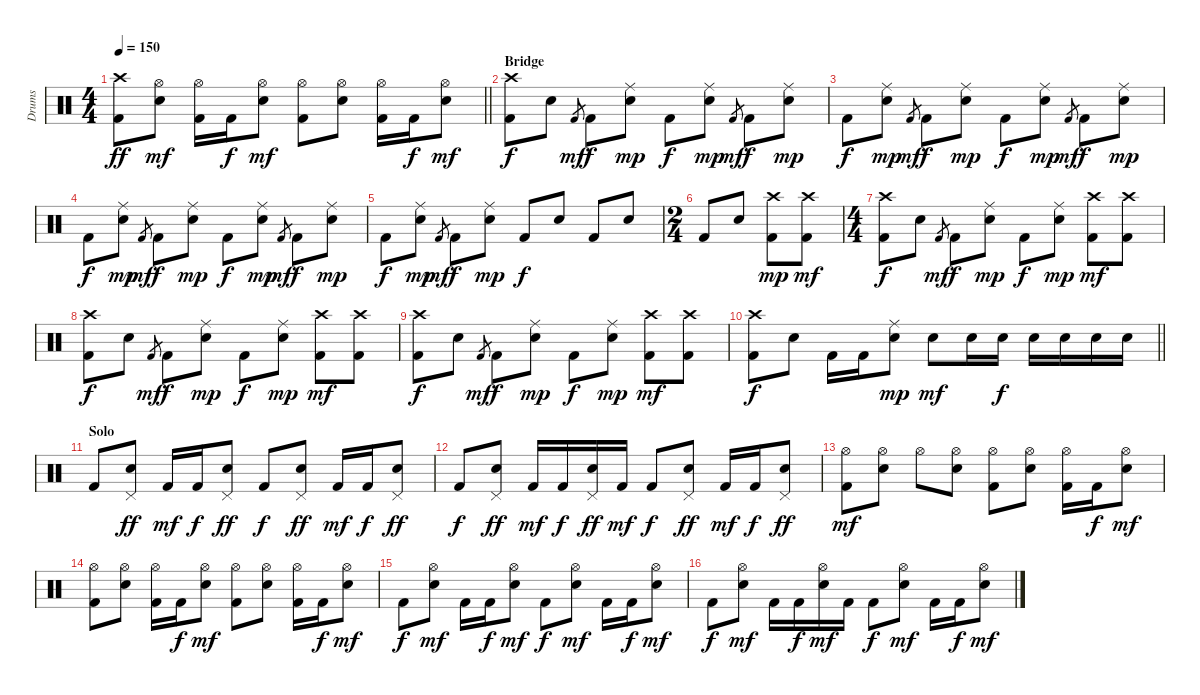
\track ("Drums" "Drums") {instrument percussion}
\staff {score}
\articulation defaults
\ts (4 4)
\tempo 150
\clef neutral
\barLineRight lightlight
\ks c
("Crash high (hit)" "Kick (hit) 2").8{dy ff} ("Hi-Hat (open)" "Electric Snare (hit)").8{dy mf} ("Hi-Hat (open)" "Kick (hit) 2").16 "Kick (hit) 2".16{dy f} ("Hi-Hat (open)" "Electric Snare (hit)").8{dy mf} ("Hi-Hat (open)" "Kick (hit) 2").8 ("Hi-Hat (open)" "Electric Snare (hit)").8 ("Hi-Hat (open)" "Kick (hit) 2").16 "Kick (hit) 2".16{dy f} ("Hi-Hat (open)" "Electric Snare (hit)").8{dy mf} |
\section ("" "Bridge")
("Crash high (hit)" "Kick (hit) 2").8{dy f} "Electric Snare (hit)".8 "Kick (hit) 2".8{gr dy mf} "Kick (hit) 2".8{dy f} ("Ride (middle)" "Electric Snare (hit)").8{dy mp} "Kick (hit) 2".8{dy f} ("Ride (middle)" "Electric Snare (hit)").8{dy mp} "Kick (hit) 2".8{gr dy mf} "Kick (hit) 2".8{dy f} ("Ride (middle)" "Electric Snare (hit)").8{dy mp} |
"Kick (hit) 2".8{dy f} ("Ride (middle)" "Electric Snare (hit)").8{dy mp} "Kick (hit) 2".8{gr dy mf} "Kick (hit) 2".8{dy f} ("Ride (middle)" "Electric Snare (hit)").8{dy mp} "Kick (hit) 2".8{dy f} ("Ride (middle)" "Electric Snare (hit)").8{dy mp} "Kick (hit) 2".8{gr dy mf} "Kick (hit) 2".8{dy f} ("Ride (middle)" "Electric Snare (hit)").8{dy mp} |
"Kick (hit) 2".8{dy f} ("Ride (middle)" "Electric Snare (hit)").8{dy mp} "Kick (hit) 2".8{gr dy mf} "Kick (hit) 2".8{dy f} ("Ride (middle)" "Electric Snare (hit)").8{dy mp} "Kick (hit) 2".8{dy f} ("Ride (middle)" "Electric Snare (hit)").8{dy mp} "Kick (hit) 2".8{gr dy mf} "Kick (hit) 2".8{dy f} ("Ride (middle)" "Electric Snare (hit)").8{dy mp} |
"Kick (hit) 2".8{dy f} ("Ride (middle)" "Electric Snare (hit)").8{dy mp} "Kick (hit) 2".8{gr dy mf} "Kick (hit) 2".8{dy f} ("Ride (middle)" "Electric Snare (hit)").8{dy mp} "Kick (hit) 2".8{dy f} "Electric Snare (hit)".8 "Kick (hit) 2".8 "Electric Snare (hit)".8 |
\ts (2 4)
"Kick (hit) 2".8 "Electric Snare (hit)".8 ("Crash high (hit)" "Kick (hit) 2").8{dy mp} ("Crash high (hit)" "Kick (hit) 2").8{dy mf} |
\ts (4 4)
("Crash high (hit)" "Kick (hit) 2").8{dy f} "Electric Snare (hit)".8 "Kick (hit) 2".8{gr dy mf} "Kick (hit) 2".8{dy f} ("Ride (middle)" "Electric Snare (hit)").8{dy mp} "Kick (hit) 2".8{dy f} ("Ride (middle)" "Electric Snare (hit)").8{dy mp} ("Crash high (hit)" "Kick (hit) 2").8{dy mf} ("Crash high (hit)" "Kick (hit) 2").8 |
("Crash high (hit)" "Kick (hit) 2").8{dy f} "Electric Snare (hit)".8 "Kick (hit) 2".8{gr dy mf} "Kick (hit) 2".8{dy f} ("Ride (middle)" "Electric Snare (hit)").8{dy mp} "Kick (hit) 2".8{dy f} ("Ride (middle)" "Electric Snare (hit)").8{dy mp} ("Crash high (hit)" "Kick (hit) 2").8{dy mf} ("Crash high (hit)" "Kick (hit) 2").8 |
("Crash high (hit)" "Kick (hit) 2").8{dy f} "Electric Snare (hit)".8 "Kick (hit) 2".8{gr dy mf} "Kick (hit) 2".8{dy f} ("Ride (middle)" "Electric Snare (hit)").8{dy mp} "Kick (hit) 2".8{dy f} ("Ride (middle)" "Electric Snare (hit)").8{dy mp} ("Crash high (hit)" "Kick (hit) 2").8{dy mf} ("Crash high (hit)" "Kick (hit) 2").8 |
\barLineRight lightlight
("Crash high (hit)" "Kick (hit) 2").8{dy f} "Electric Snare (hit)".8 "Kick (hit) 2".16 "Kick (hit) 2".16 ("Ride (middle)" "Electric Snare (hit)").8{dy mp} "Electric Snare (hit)".8{dy mf} "Electric Snare (hit)".16 "Electric Snare (hit)".16{dy f} "Electric Snare (hit)".16 "Electric Snare (hit)".16 "Electric Snare (hit)".16 "Electric Snare (hit)".16 |
\section ("" "Solo")
"Kick (hit) 2".8 ("Pedal Hi-Hat (hit)" "Electric Snare (hit)").8{dy ff} "Kick (hit) 2".16{dy mf} "Kick (hit) 2".16{dy f} ("Pedal Hi-Hat (hit)" "Electric Snare (hit)").8{dy ff} "Kick (hit) 2".8{dy f} ("Pedal Hi-Hat (hit)" "Electric Snare (hit)").8{dy ff} "Kick (hit) 2".16{dy mf} "Kick (hit) 2".16{dy f} ("Pedal Hi-Hat (hit)" "Electric Snare (hit)").8{dy ff} |
"Kick (hit) 2".8{dy f} ("Pedal Hi-Hat (hit)" "Electric Snare (hit)").8{dy ff} "Kick (hit) 2".16{dy mf} "Kick (hit) 2".16{dy f} ("Pedal Hi-Hat (hit)" "Electric Snare (hit)").16{dy ff} "Kick (hit) 2".16{dy mf} "Kick (hit) 2".8{dy f} ("Pedal Hi-Hat (hit)" "Electric Snare (hit)").8{dy ff} "Kick (hit) 2".16{dy mf} "Kick (hit) 2".16{dy f} ("Pedal Hi-Hat (hit)" "Electric Snare (hit)").8{dy ff} |
("Hi-Hat (open)" "Kick (hit) 2").8{dy mf} ("Hi-Hat (open)" "Electric Snare (hit)").8 "Hi-Hat (open)".8 ("Hi-Hat (open)" "Electric Snare (hit)").8 ("Hi-Hat (open)" "Kick (hit) 2").8 ("Hi-Hat (open)" "Electric Snare (hit)").8 ("Hi-Hat (open)" "Kick (hit) 2").16 "Kick (hit) 2".16{dy f} ("Hi-Hat (open)" "Electric Snare (hit)").8{dy mf} |
("Hi-Hat (open)" "Kick (hit) 2").8 ("Hi-Hat (open)" "Electric Snare (hit)").8 ("Hi-Hat (open)" "Kick (hit) 2").16 "Kick (hit) 2".16{dy f} ("Hi-Hat (open)" "Electric Snare (hit)").8{dy mf} ("Hi-Hat (open)" "Kick (hit) 2").8 ("Hi-Hat (open)" "Electric Snare (hit)").8 ("Hi-Hat (open)" "Kick (hit) 2").16 "Kick (hit) 2".16{dy f} ("Hi-Hat (open)" "Electric Snare (hit)").8{dy mf} |
"Kick (hit) 2".8{dy f} ("Hi-Hat (open)" "Electric Snare (hit)").8{dy mf} "Kick (hit) 2".16 "Kick (hit) 2".16{dy f} ("Hi-Hat (open)" "Electric Snare (hit)").8{dy mf} "Kick (hit) 2".8{dy f} ("Hi-Hat (open)" "Electric Snare (hit)").8{dy mf} "Kick (hit) 2".16 "Kick (hit) 2".16{dy f} ("Hi-Hat (open)" "Electric Snare (hit)").8{dy mf} |
"Kick (hit) 2".8{dy f} ("Hi-Hat (open)" "Electric Snare (hit)").8{dy mf} "Kick (hit) 2".16 "Kick (hit) 2".16{dy f} ("Hi-Hat (open)" "Electric Snare (hit)").16{dy mf} "Kick (hit) 2".16 "Kick (hit) 2".8{dy f} ("Hi-Hat (open)" "Electric Snare (hit)").8{dy mf} "Kick (hit) 2".16 "Kick (hit) 2".16{dy f} ("Hi-Hat (open)" "Electric Snare (hit)").8{dy mf}
